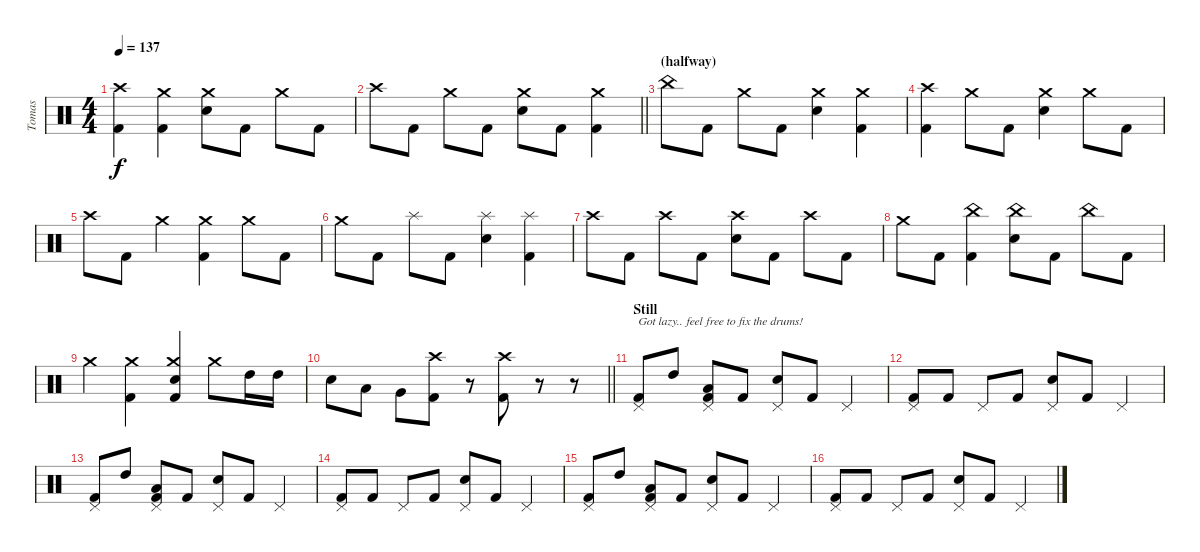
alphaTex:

\track ("Tomas" "Tomas") {instrument percussion}
\staff {score}
\articulation defaults
\ts (4 4)
\tempo 137
\clef neutral
\ks c
("Crash high (hit)" "Kick (hit) 2").4{dy f} ("Crash medium (hit)" "Kick (hit) 2").4 ("Crash medium (hit)" "Electric Snare (hit)").8 "Kick (hit) 2".8 "Crash medium (hit)".8 "Kick (hit) 2".8 |
\barLineRight lightlight "Crash high (hit)".8 "Kick (hit) 2".8 "Crash medium (hit)".8 "Kick (hit) 2".8
("Crash medium (hit)" "Electric Snare (hit)").8 "Kick (hit) 2".8 ("Crash medium (hit)" "Kick (hit) 2").4 |
\section ("" "(halfway)")
"China (hit)".8 "Kick (hit) 2".8 "Crash medium (hit)".8 "Kick (hit) 2".8 ("Crash medium (hit)" "Electric Snare (hit)").4 ("Crash medium (hit)" "Kick (hit) 2").4 |
("Crash high (hit)" "Kick (hit) 2").4 "Crash medium (hit)".8 "Kick (hit) 2".8 ("Crash medium (hit)" "Electric Snare (hit)").4 "Crash medium (hit)".8 "Kick (hit) 2".8 |
"Crash high (hit)".8 "Kick (hit) 2".8 "Crash medium (hit)".4 ("Crash medium (hit)" "Kick (hit) 2").4 "Crash medium (hit)".8 "Kick (hit) 2".8 |
"Crash medium (hit)".8 "Kick (hit) 2".8 "Splash (hit)".8 "Kick (hit) 2".8 ("Splash (hit)" "Electric Snare (hit)").4 ("Splash (hit)" "Kick (hit) 2").4 |
"Crash high (hit)".8 "Kick (hit) 2".8 "Crash high (hit)".8 "Kick (hit) 2".8 ("Crash high (hit)" "Electric Snare (hit)").8 "Kick (hit) 2".8 "Crash high (hit)".8 "Kick (hit) 2".8 |
"Crash medium (hit)".8 "Kick (hit) 2".8 ("China (hit)" "Kick (hit) 2").4 ("China (hit)" "Electric Snare (hit)").8 "Kick (hit) 2".8 "China (hit)".8 "Kick (hit) 2".8 |
"Crash medium (hit)".4 ("Crash medium (hit)" "Kick (hit) 2").4 ("Crash medium (hit)" "Electric Snare (hit)" "Kick (hit) 2").4 "Crash medium (hit)".8 "High Tom (hit)".16 "High Tom (hit)".16 |
\barLineRight lightlight "Electric Snare (hit)".8 "Low Tom (hit)".8 "Very Low Tom (hit)".8
("Crash high (hit)" "Kick (hit) 2").8 r.8 ("Crash high (hit)" "Kick (hit) 2").8 r.8 r.8 |
\section ("" "Still")
("Pedal Hi-Hat (hit)" "Kick (hit) 2").8{txt "Got lazy.. feel free to fix the drums!"} "High Tom (hit)".8 ("Pedal Hi-Hat (hit)" "Low Tom (hit)" "Kick (hit) 2").8 "Kick (hit) 2".8 ("Pedal Hi-Hat (hit)" "Electric Snare (hit)").8 "Kick (hit) 2".8 "Pedal Hi-Hat (hit)".4 |
("Pedal Hi-Hat (hit)" "Kick (hit) 2").8 "Kick (hit) 2".8 "Pedal Hi-Hat (hit)".8 "Kick (hit) 2".8 ("Pedal Hi-Hat (hit)" "Electric Snare (hit)").8 "Kick (hit) 2".8 "Pedal Hi-Hat (hit)".4 |
("Pedal Hi-Hat (hit)" "Kick (hit) 2").8 "High Tom (hit)".8 ("Pedal Hi-Hat (hit)" "Low Tom (hit)" "Kick (hit) 2").8 "Kick (hit) 2".8 ("Pedal Hi-Hat (hit)" "Electric Snare (hit)").8 "Kick (hit) 2".8 "Pedal Hi-Hat (hit)".4 |
("Pedal Hi-Hat (hit)" "Kick (hit) 2").8 "Kick (hit) 2".8 "Pedal Hi-Hat (hit)".8 "Kick (hit) 2".8 ("Pedal Hi-Hat (hit)" "Electric Snare (hit)").8 "Kick (hit) 2".8 "Pedal Hi-Hat (hit)".4 |
("Pedal Hi-Hat (hit)" "Kick (hit) 2").8 "High Tom (hit)".8 ("Pedal Hi-Hat (hit)" "Low Tom (hit)" "Kick (hit) 2").8 "Kick (hit) 2".8 ("Pedal Hi-Hat (hit)" "Electric Snare (hit)").8 "Kick (hit) 2".8 "Pedal Hi-Hat (hit)".4 |
("Pedal Hi-Hat (hit)" "Kick (hit) 2").8 "Kick (hit) 2".8 "Pedal Hi-Hat (hit)".8 "Kick (hit) 2".8 ("Pedal Hi-Hat (hit)" "Electric Snare (hit)").8 "Kick (hit) 2".8 "Pedal Hi-Hat (hit)".4
